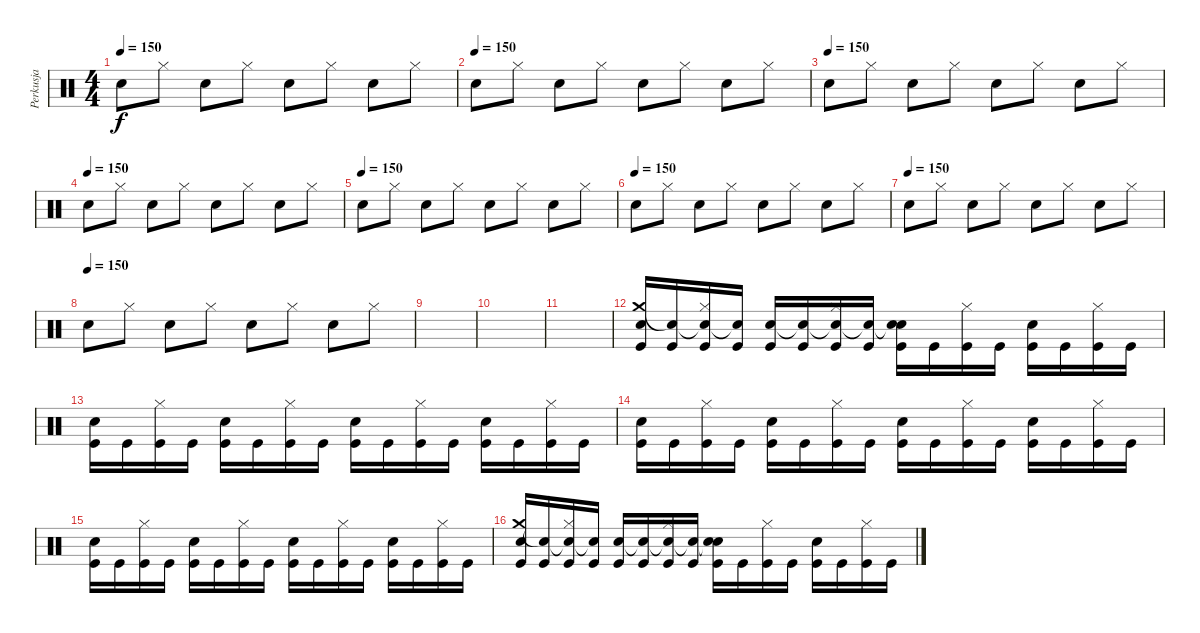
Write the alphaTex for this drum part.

\track ("Perkusja" "Perkusja") {instrument percussion}
\staff {score}
\articulation defaults
\ts (4 4)
\tempo 150
\clef neutral
\ks c "Snare (hit) 2".8{dy f} "Hi-Hat (closed)".8 "Snare (hit) 2".8 "Hi-Hat (closed)".8 "Snare (hit) 2".8 "Hi-Hat (closed)".8 "Snare (hit) 2".8 "Hi-Hat (closed)".8
|
\tempo (150)
"Snare (hit) 2".8 "Hi-Hat (closed)".8 "Snare (hit) 2".8 "Hi-Hat (closed)".8 "Snare (hit) 2".8 "Hi-Hat (closed)".8 "Snare (hit) 2".8 "Hi-Hat (closed)".8 |
\tempo (150)
"Snare (hit) 2".8 "Hi-Hat (closed)".8 "Snare (hit) 2".8 "Hi-Hat (closed)".8 "Snare (hit) 2".8 "Hi-Hat (closed)".8 "Snare (hit) 2".8 "Hi-Hat (closed)".8 |
\tempo (150)
"Snare (hit) 2".8 "Hi-Hat (closed)".8 "Snare (hit) 2".8 "Hi-Hat (closed)".8 "Snare (hit) 2".8 "Hi-Hat (closed)".8 "Snare (hit) 2".8 "Hi-Hat (closed)".8 |
\tempo (150)
"Snare (hit) 2".8 "Hi-Hat (closed)".8 "Snare (hit) 2".8 "Hi-Hat (closed)".8 "Snare (hit) 2".8 "Hi-Hat (closed)".8 "Snare (hit) 2".8 "Hi-Hat (closed)".8 |
\tempo (150)
"Snare (hit) 2".8 "Hi-Hat (closed)".8 "Snare (hit) 2".8 "Hi-Hat (closed)".8 "Snare (hit) 2".8 "Hi-Hat (closed)".8 "Snare (hit) 2".8 "Hi-Hat (closed)".8 |
\tempo (150)
"Snare (hit) 2".8 "Hi-Hat (closed)".8 "Snare (hit) 2".8 "Hi-Hat (closed)".8 "Snare (hit) 2".8 "Hi-Hat (closed)".8 "Snare (hit) 2".8 "Hi-Hat (closed)".8 |
\tempo (150)
"Snare (hit) 2".8 "Hi-Hat (closed)".8 "Snare (hit) 2".8 "Hi-Hat (closed)".8 "Snare (hit) 2".8 "Hi-Hat (closed)".8 "Snare (hit) 2".8 "Hi-Hat (closed)".8 |
|
|
|
("Crash medium (hit)" "Snare (hit) 2" "Kick (hit)").16 ("Snare (hit)"{t} "Kick (hit)").16 ("Snare (hit)"{t} "Hi-Hat (closed)" "Kick (hit)").16 ("Snare (hit)"{t} "Kick (hit)").16 ("Snare (hit) 2" "Kick (hit)").16 ("Snare (hit)"{t} "Kick (hit)").16 ("Snare (hit)"{t} "Hi-Hat (closed)" "Kick (hit)").16 ("Snare (hit)"{t} "Kick (hit)").16 ("Snare (hit)"{t} "Snare (hit) 2" "Kick (hit)").16 "Kick (hit)".16 ("Hi-Hat (closed)" "Kick (hit)").16 "Kick (hit)".16 ("Snare (hit) 2" "Kick (hit)").16 "Kick (hit)".16 ("Hi-Hat (closed)" "Kick (hit)").16 "Kick (hit)".16 |
("Snare (hit) 2" "Kick (hit)").16 "Kick (hit)".16 ("Hi-Hat (closed)" "Kick (hit)").16 "Kick (hit)".16 ("Snare (hit) 2" "Kick (hit)").16 "Kick (hit)".16 ("Hi-Hat (closed)" "Kick (hit)").16 "Kick (hit)".16 ("Snare (hit) 2" "Kick (hit)").16 "Kick (hit)".16 ("Hi-Hat (closed)" "Kick (hit)").16 "Kick (hit)".16 ("Snare (hit) 2" "Kick (hit)").16 "Kick (hit)".16 ("Hi-Hat (closed)" "Kick (hit)").16 "Kick (hit)".16 |
("Snare (hit) 2" "Kick (hit)").16 "Kick (hit)".16 ("Hi-Hat (closed)" "Kick (hit)").16 "Kick (hit)".16 ("Snare (hit) 2" "Kick (hit)").16 "Kick (hit)".16 ("Hi-Hat (closed)" "Kick (hit)").16 "Kick (hit)".16 ("Snare (hit) 2" "Kick (hit)").16 "Kick (hit)".16 ("Hi-Hat (closed)" "Kick (hit)").16 "Kick (hit)".16 ("Snare (hit) 2" "Kick (hit)").16 "Kick (hit)".16 ("Hi-Hat (closed)" "Kick (hit)").16 "Kick (hit)".16 |
("Snare (hit) 2" "Kick (hit)").16 "Kick (hit)".16 ("Hi-Hat (closed)" "Kick (hit)").16 "Kick (hit)".16 ("Snare (hit) 2" "Kick (hit)").16 "Kick (hit)".16 ("Hi-Hat (closed)" "Kick (hit)").16 "Kick (hit)".16 ("Snare (hit) 2" "Kick (hit)").16 "Kick (hit)".16 ("Hi-Hat (closed)" "Kick (hit)").16 "Kick (hit)".16 ("Snare (hit) 2" "Kick (hit)").16 "Kick (hit)".16 ("Hi-Hat (closed)" "Kick (hit)").16 "Kick (hit)".16 |
("Crash medium (hit)" "Snare (hit) 2" "Kick (hit)").16 ("Snare (hit)"{t} "Kick (hit)").16 ("Snare (hit)"{t} "Hi-Hat (closed)" "Kick (hit)").16 ("Snare (hit)"{t} "Kick (hit)").16 ("Snare (hit) 2" "Kick (hit)").16 ("Snare (hit)"{t} "Kick (hit)").16 ("Snare (hit)"{t} "Hi-Hat (closed)" "Kick (hit)").16 ("Snare (hit)"{t} "Kick (hit)").16 ("Snare (hit)"{t} "Snare (hit) 2" "Kick (hit)").16 "Kick (hit)".16 ("Hi-Hat (closed)" "Kick (hit)").16 "Kick (hit)".16 ("Snare (hit) 2" "Kick (hit)").16 "Kick (hit)".16 ("Hi-Hat (closed)" "Kick (hit)").16 "Kick (hit)".16
